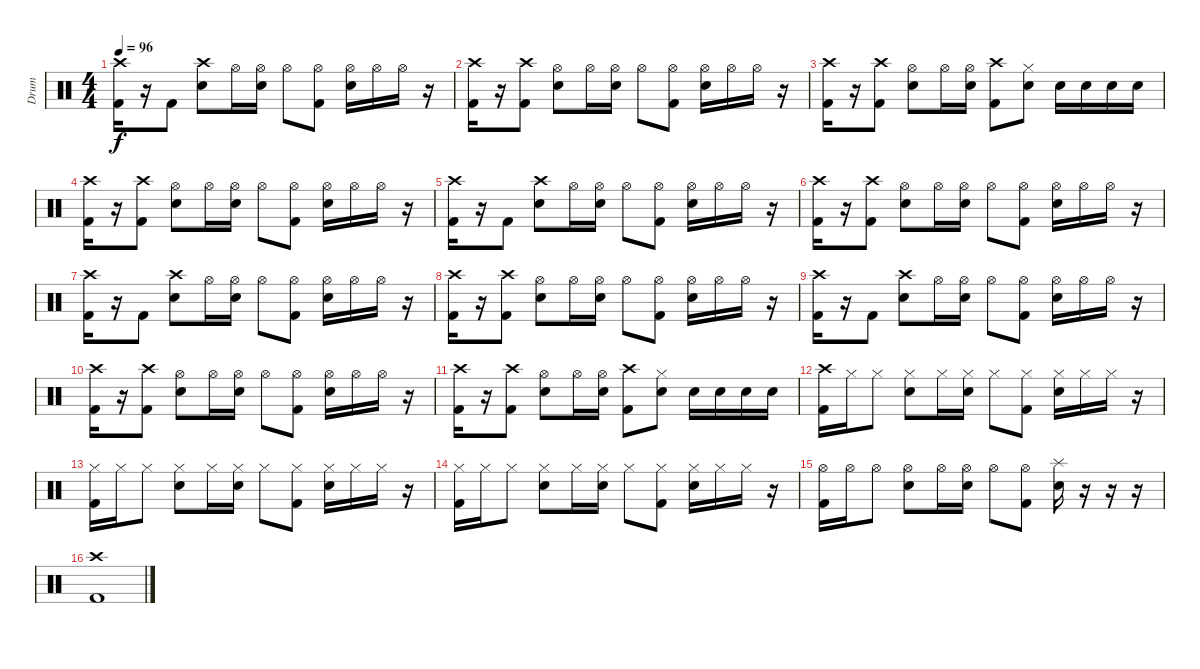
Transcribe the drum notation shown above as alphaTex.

\track ("Drum" "Drum") {instrument percussion}
\staff {score}
\articulation defaults
\ts (4 4)
\tempo 96
\clef neutral
\ks c
("Crash high (hit)" "Kick (hit) 2").16{dy f} r.16 "Kick (hit) 2".8 ("Crash high (hit)" "Snare (hit) 2").8 "Hi-Hat (open)".16 ("Hi-Hat (open)" "Snare (hit) 2").16 "Hi-Hat (open)".8 ("Hi-Hat (open)" "Kick (hit) 2").8 ("Hi-Hat (open)" "Snare (hit) 2").16 "Hi-Hat (open)".16 "Hi-Hat (open)".16 r.16 |
("Crash high (hit)" "Kick (hit) 2").16 r.16 ("Crash high (hit)" "Kick (hit) 2").8 ("Hi-Hat (open)" "Snare (hit) 2").8 "Hi-Hat (open)".16 ("Hi-Hat (open)" "Snare (hit) 2").16 "Hi-Hat (open)".8 ("Hi-Hat (open)" "Kick (hit) 2").8 ("Hi-Hat (open)" "Snare (hit) 2").16 "Hi-Hat (open)".16 "Hi-Hat (open)".16 r.16 |
("Crash high (hit)" "Kick (hit) 2").16 r.16 ("Crash high (hit)" "Kick (hit) 2").8 ("Hi-Hat (open)" "Snare (hit) 2").8 "Hi-Hat (open)".16 ("Hi-Hat (open)" "Snare (hit) 2").16 ("Crash high (hit)" "Kick (hit) 2").8 ("Hi-Hat (closed)" "Snare (hit) 2").8 "Snare (hit) 2".16 "Snare (hit) 2".16 "Snare (hit) 2".16 "Snare (hit) 2".16 |
("Crash high (hit)" "Kick (hit) 2").16 r.16 ("Crash high (hit)" "Kick (hit) 2").8 ("Hi-Hat (open)" "Snare (hit) 2").8 "Hi-Hat (open)".16 ("Hi-Hat (open)" "Snare (hit) 2").16 "Hi-Hat (open)".8 ("Hi-Hat (open)" "Kick (hit) 2").8 ("Hi-Hat (open)" "Snare (hit) 2").16 "Hi-Hat (open)".16 "Hi-Hat (open)".16 r.16 |
("Crash high (hit)" "Kick (hit) 2").16 r.16 "Kick (hit) 2".8 ("Crash high (hit)" "Snare (hit) 2").8 "Hi-Hat (open)".16 ("Hi-Hat (open)" "Snare (hit) 2").16 "Hi-Hat (open)".8 ("Hi-Hat (open)" "Kick (hit) 2").8 ("Hi-Hat (open)" "Snare (hit) 2").16 "Hi-Hat (open)".16 "Hi-Hat (open)".16 r.16 |
("Crash high (hit)" "Kick (hit) 2").16 r.16 ("Crash high (hit)" "Kick (hit) 2").8 ("Hi-Hat (open)" "Snare (hit) 2").8 "Hi-Hat (open)".16 ("Hi-Hat (open)" "Snare (hit) 2").16 "Hi-Hat (open)".8 ("Hi-Hat (open)" "Kick (hit) 2").8 ("Hi-Hat (open)" "Snare (hit) 2").16 "Hi-Hat (open)".16 "Hi-Hat (open)".16 r.16 |
("Crash high (hit)" "Kick (hit) 2").16 r.16 "Kick (hit) 2".8 ("Crash high (hit)" "Snare (hit) 2").8 "Hi-Hat (open)".16 ("Hi-Hat (open)" "Snare (hit) 2").16 "Hi-Hat (open)".8 ("Hi-Hat (open)" "Kick (hit) 2").8 ("Hi-Hat (open)" "Snare (hit) 2").16 "Hi-Hat (open)".16 "Hi-Hat (open)".16 r.16 |
("Crash high (hit)" "Kick (hit) 2").16 r.16 ("Crash high (hit)" "Kick (hit) 2").8 ("Hi-Hat (open)" "Snare (hit) 2").8 "Hi-Hat (open)".16 ("Hi-Hat (open)" "Snare (hit) 2").16 "Hi-Hat (open)".8 ("Hi-Hat (open)" "Kick (hit) 2").8 ("Hi-Hat (open)" "Snare (hit) 2").16 "Hi-Hat (open)".16 "Hi-Hat (open)".16 r.16 |
("Crash high (hit)" "Kick (hit) 2").16 r.16 "Kick (hit) 2".8 ("Crash high (hit)" "Snare (hit) 2").8 "Hi-Hat (open)".16 ("Hi-Hat (open)" "Snare (hit) 2").16 "Hi-Hat (open)".8 ("Hi-Hat (open)" "Kick (hit) 2").8 ("Hi-Hat (open)" "Snare (hit) 2").16 "Hi-Hat (open)".16 "Hi-Hat (open)".16 r.16 |
("Crash high (hit)" "Kick (hit) 2").16 r.16 ("Crash high (hit)" "Kick (hit) 2").8 ("Hi-Hat (open)" "Snare (hit) 2").8 "Hi-Hat (open)".16 ("Hi-Hat (open)" "Snare (hit) 2").16 "Hi-Hat (open)".8 ("Hi-Hat (open)" "Kick (hit) 2").8 ("Hi-Hat (open)" "Snare (hit) 2").16 "Hi-Hat (open)".16 "Hi-Hat (open)".16 r.16 |
("Crash high (hit)" "Kick (hit) 2").16 r.16 ("Crash high (hit)" "Kick (hit) 2").8 ("Hi-Hat (open)" "Snare (hit) 2").8 "Hi-Hat (open)".16 ("Hi-Hat (open)" "Snare (hit) 2").16 ("Crash high (hit)" "Kick (hit) 2").8 ("Hi-Hat (closed)" "Snare (hit) 2").8 "Snare (hit) 2".16 "Snare (hit) 2".16 "Snare (hit) 2".16 "Snare (hit) 2".16 |
("Crash high (hit)" "Kick (hit) 2").16 "Hi-Hat (closed)".16 "Hi-Hat (closed)".8 ("Hi-Hat (closed)" "Snare (hit) 2").8 "Hi-Hat (closed)".16 ("Hi-Hat (closed)" "Snare (hit) 2").16 "Hi-Hat (closed)".8 ("Hi-Hat (closed)" "Kick (hit) 2").8 ("Hi-Hat (closed)" "Snare (hit) 2").16 "Hi-Hat (closed)".16 "Hi-Hat (closed)".16 r.16 |
("Hi-Hat (closed)" "Kick (hit) 2").16 "Hi-Hat (closed)".16 "Hi-Hat (closed)".8 ("Hi-Hat (closed)" "Snare (hit) 2").8 "Hi-Hat (closed)".16 ("Hi-Hat (closed)" "Snare (hit) 2").16 "Hi-Hat (closed)".8 ("Hi-Hat (closed)" "Kick (hit) 2").8 ("Hi-Hat (closed)" "Snare (hit) 2").16 "Hi-Hat (closed)".16 "Hi-Hat (closed)".16 r.16 |
("Hi-Hat (closed)" "Kick (hit) 2").16 "Hi-Hat (closed)".16 "Hi-Hat (closed)".8 ("Hi-Hat (closed)" "Snare (hit) 2").8 "Hi-Hat (closed)".16 ("Hi-Hat (closed)" "Snare (hit) 2").16 "Hi-Hat (closed)".8 ("Hi-Hat (closed)" "Kick (hit) 2").8 ("Hi-Hat (closed)" "Snare (hit) 2").16 "Hi-Hat (closed)".16 "Hi-Hat (closed)".16 r.16 |
("Hi-Hat (open)" "Kick (hit) 2").16 "Hi-Hat (open)".16 "Hi-Hat (open)".8 ("Hi-Hat (open)" "Snare (hit) 2").8 "Hi-Hat (open)".16 ("Hi-Hat (open)" "Snare (hit) 2").16 "Hi-Hat (open)".8 ("Hi-Hat (open)" "Kick (hit) 2").8 ("Splash (hit)" "Snare (hit) 2").16 r.16 r.16 r.16 |
("Crash high (hit)" "Kick (hit) 2").1
